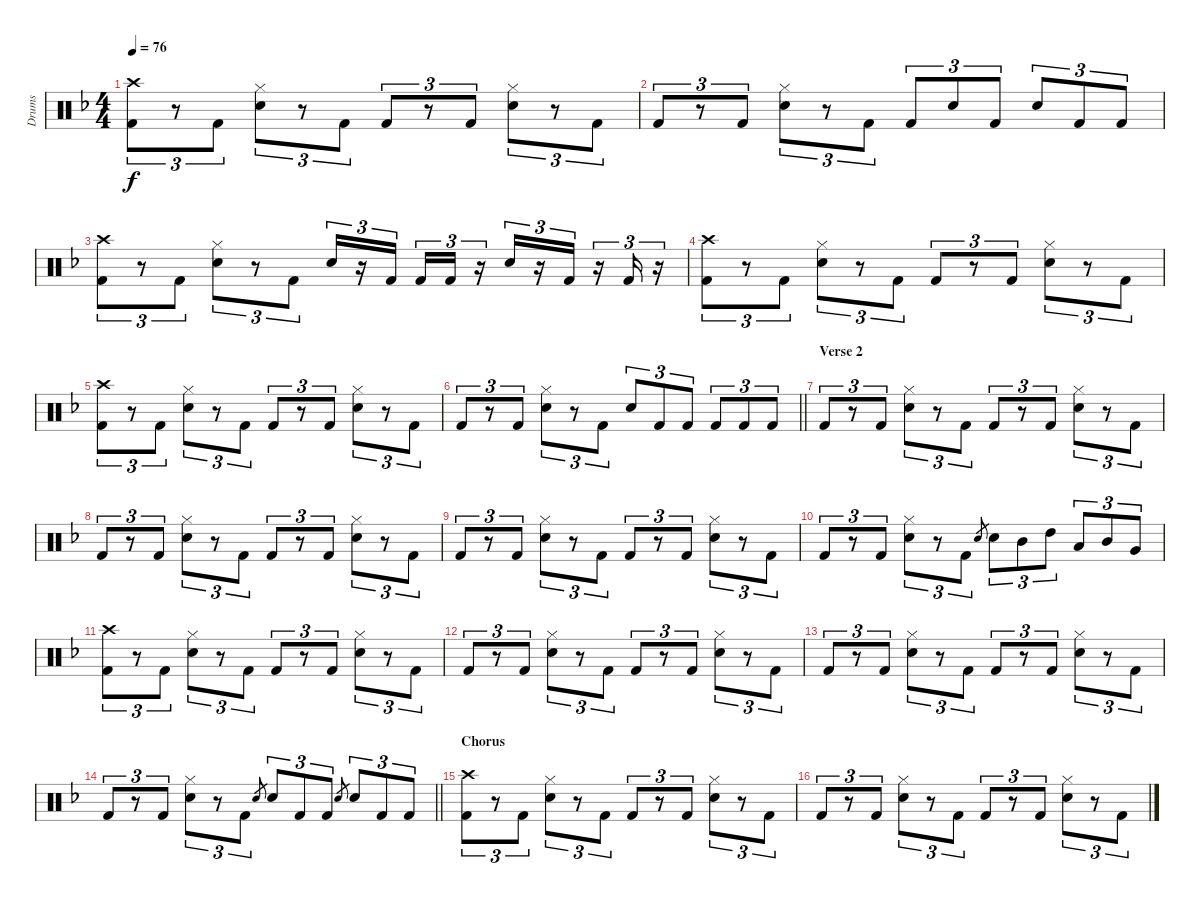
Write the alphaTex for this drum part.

\track ("Drums" "Drums") {instrument percussion}
\staff {score}
\articulation defaults
\ts (4 4)
\tempo 76
\clef neutral
\ks f
("Crash high (hit)" "Kick (hit) 2").8{tu (3 2) dy f} r.8{tu (3 2)} "Kick (hit) 2".8{tu (3 2)} ("Hi-Hat (closed)" "Electric Snare (hit)").8{tu (3 2)} r.8{tu (3 2)} "Kick (hit) 2".8{tu (3 2)} "Kick (hit) 2".8{tu (3 2)} r.8{tu (3 2)} "Kick (hit) 2".8{tu (3 2)} ("Hi-Hat (closed)" "Electric Snare (hit)").8{tu (3 2)} r.8{tu (3 2)} "Kick (hit) 2".8{tu (3 2)} |
"Kick (hit) 2".8{tu (3 2)} r.8{tu (3 2)} "Kick (hit) 2".8{tu (3 2)} ("Hi-Hat (closed)" "Electric Snare (hit)").8{tu (3 2)} r.8{tu (3 2)} "Kick (hit) 2".8{tu (3 2)} "Kick (hit) 2".8{tu (3 2)} "Electric Snare (hit)".8{tu (3 2)} "Kick (hit) 2".8{tu (3 2)} "Electric Snare (hit)".8{tu (3 2)} "Kick (hit) 2".8{tu (3 2)} "Kick (hit) 2".8{tu (3 2)} |
("Crash high (hit)" "Kick (hit) 2").8{tu (3 2)} r.8{tu (3 2)} "Kick (hit) 2".8{tu (3 2)} ("Hi-Hat (closed)" "Electric Snare (hit)").8{tu (3 2)} r.8{tu (3 2)} "Kick (hit) 2".8{tu (3 2)} "Electric Snare (hit)".16{tu (3 2)} r.16{tu (3 2)} "Kick (hit) 2".16{tu (3 2) beam splitsecondary} "Kick (hit) 2".16{tu (3 2)} "Kick (hit) 2".16{tu (3 2)} r.16{tu (3 2)} "Electric Snare (hit)".16{tu (3 2)} r.16{tu (3 2)} "Kick (hit) 2".16{tu (3 2)} r.16{tu (3 2)} "Kick (hit) 2".16{tu (3 2)} r.16{tu (3 2)} |
("Crash high (hit)" "Kick (hit) 2").8{tu (3 2)} r.8{tu (3 2)} "Kick (hit) 2".8{tu (3 2)} ("Hi-Hat (closed)" "Electric Snare (hit)").8{tu (3 2)} r.8{tu (3 2)} "Kick (hit) 2".8{tu (3 2)} "Kick (hit) 2".8{tu (3 2)} r.8{tu (3 2)} "Kick (hit) 2".8{tu (3 2)} ("Hi-Hat (closed)" "Electric Snare (hit)").8{tu (3 2)} r.8{tu (3 2)} "Kick (hit) 2".8{tu (3 2)} |
("Crash high (hit)" "Kick (hit) 2").8{tu (3 2)} r.8{tu (3 2)} "Kick (hit) 2".8{tu (3 2)} ("Hi-Hat (closed)" "Electric Snare (hit)").8{tu (3 2)} r.8{tu (3 2)} "Kick (hit) 2".8{tu (3 2)} "Kick (hit) 2".8{tu (3 2)} r.8{tu (3 2)} "Kick (hit) 2".8{tu (3 2)} ("Hi-Hat (closed)" "Electric Snare (hit)").8{tu (3 2)} r.8{tu (3 2)} "Kick (hit) 2".8{tu (3 2)} |
\barLineRight lightlight "Kick (hit) 2".8{tu (3 2)}
r.8{tu (3 2)} "Kick (hit) 2".8{tu (3 2)} ("Hi-Hat (closed)" "Electric Snare (hit)").8{tu (3 2)} r.8{tu (3 2)} "Kick (hit) 2".8{tu (3 2)} "Electric Snare (hit)".8{tu (3 2)} "Kick (hit) 2".8{tu (3 2)} "Kick (hit) 2".8{tu (3 2)} "Kick (hit) 2".8{tu (3 2)} "Kick (hit) 2".8{tu (3 2)} "Kick (hit) 2".8{tu (3 2)} |
\section ("" "Verse 2")
"Kick (hit) 2".8{tu (3 2)} r.8{tu (3 2)} "Kick (hit) 2".8{tu (3 2)} ("Hi-Hat (closed)" "Electric Snare (hit)").8{tu (3 2)} r.8{tu (3 2)} "Kick (hit) 2".8{tu (3 2)} "Kick (hit) 2".8{tu (3 2)} r.8{tu (3 2)} "Kick (hit) 2".8{tu (3 2)} ("Hi-Hat (closed)" "Electric Snare (hit)").8{tu (3 2)} r.8{tu (3 2)} "Kick (hit) 2".8{tu (3 2)} |
"Kick (hit) 2".8{tu (3 2)} r.8{tu (3 2)} "Kick (hit) 2".8{tu (3 2)} ("Hi-Hat (closed)" "Electric Snare (hit)").8{tu (3 2)} r.8{tu (3 2)} "Kick (hit) 2".8{tu (3 2)} "Kick (hit) 2".8{tu (3 2)} r.8{tu (3 2)} "Kick (hit) 2".8{tu (3 2)} ("Hi-Hat (closed)" "Electric Snare (hit)").8{tu (3 2)} r.8{tu (3 2)} "Kick (hit) 2".8{tu (3 2)} |
"Kick (hit) 2".8{tu (3 2)} r.8{tu (3 2)} "Kick (hit) 2".8{tu (3 2)} ("Hi-Hat (closed)" "Electric Snare (hit)").8{tu (3 2)} r.8{tu (3 2)} "Kick (hit) 2".8{tu (3 2)} "Kick (hit) 2".8{tu (3 2)} r.8{tu (3 2)} "Kick (hit) 2".8{tu (3 2)} ("Hi-Hat (closed)" "Electric Snare (hit)").8{tu (3 2)} r.8{tu (3 2)} "Kick (hit) 2".8{tu (3 2)} |
"Kick (hit) 2".8{tu (3 2)} r.8{tu (3 2)} "Kick (hit) 2".8{tu (3 2)} ("Hi-Hat (closed)" "Electric Snare (hit)").8{tu (3 2)} r.8{tu (3 2)} "Kick (hit) 2".8{tu (3 2)} "Electric Snare (hit)".8{gr} "Electric Snare (hit)".8{tu (3 2)} "Mid Tom (hit)".8{tu (3 2)} "High Tom (hit)".8{tu (3 2)} "Low Tom (hit)".8{tu (3 2)} "Mid Tom (hit)".8{tu (3 2)} "Very Low Tom (hit)".8{tu (3 2)} |
("Crash high (hit)" "Kick (hit) 2").8{tu (3 2)} r.8{tu (3 2)} "Kick (hit) 2".8{tu (3 2)} ("Hi-Hat (closed)" "Electric Snare (hit)").8{tu (3 2)} r.8{tu (3 2)} "Kick (hit) 2".8{tu (3 2)} "Kick (hit) 2".8{tu (3 2)} r.8{tu (3 2)} "Kick (hit) 2".8{tu (3 2)} ("Hi-Hat (closed)" "Electric Snare (hit)").8{tu (3 2)} r.8{tu (3 2)} "Kick (hit) 2".8{tu (3 2)} |
"Kick (hit) 2".8{tu (3 2)} r.8{tu (3 2)} "Kick (hit) 2".8{tu (3 2)} ("Hi-Hat (closed)" "Electric Snare (hit)").8{tu (3 2)} r.8{tu (3 2)} "Kick (hit) 2".8{tu (3 2)} "Kick (hit) 2".8{tu (3 2)} r.8{tu (3 2)} "Kick (hit) 2".8{tu (3 2)} ("Hi-Hat (closed)" "Electric Snare (hit)").8{tu (3 2)} r.8{tu (3 2)} "Kick (hit) 2".8{tu (3 2)} |
"Kick (hit) 2".8{tu (3 2)} r.8{tu (3 2)} "Kick (hit) 2".8{tu (3 2)} ("Hi-Hat (closed)" "Electric Snare (hit)").8{tu (3 2)} r.8{tu (3 2)} "Kick (hit) 2".8{tu (3 2)} "Kick (hit) 2".8{tu (3 2)} r.8{tu (3 2)} "Kick (hit) 2".8{tu (3 2)} ("Hi-Hat (closed)" "Electric Snare (hit)").8{tu (3 2)} r.8{tu (3 2)} "Kick (hit) 2".8{tu (3 2)} |
\barLineRight lightlight "Kick (hit) 2".8{tu (3 2)}
r.8{tu (3 2)} "Kick (hit) 2".8{tu (3 2)} ("Hi-Hat (closed)" "Electric Snare (hit)").8{tu (3 2)} r.8{tu (3 2)} "Kick (hit) 2".8{tu (3 2)} "Electric Snare (hit)".8{gr} "Electric Snare (hit)".8{tu (3 2)} "Kick (hit) 2".8{tu (3 2)} "Kick (hit) 2".8{tu (3 2)} "Electric Snare (hit)".8{gr} "Electric Snare (hit)".8{tu (3 2)} "Kick (hit) 2".8{tu (3 2)} "Kick (hit) 2".8{tu (3 2)} |
\section ("" "Chorus")
("Crash high (hit)" "Kick (hit) 2").8{tu (3 2)} r.8{tu (3 2)} "Kick (hit) 2".8{tu (3 2)} ("Hi-Hat (closed)" "Electric Snare (hit)").8{tu (3 2)} r.8{tu (3 2)} "Kick (hit) 2".8{tu (3 2)} "Kick (hit) 2".8{tu (3 2)} r.8{tu (3 2)} "Kick (hit) 2".8{tu (3 2)} ("Hi-Hat (closed)" "Electric Snare (hit)").8{tu (3 2)} r.8{tu (3 2)} "Kick (hit) 2".8{tu (3 2)} |
"Kick (hit) 2".8{tu (3 2)} r.8{tu (3 2)} "Kick (hit) 2".8{tu (3 2)} ("Hi-Hat (closed)" "Electric Snare (hit)").8{tu (3 2)} r.8{tu (3 2)} "Kick (hit) 2".8{tu (3 2)} "Kick (hit) 2".8{tu (3 2)} r.8{tu (3 2)} "Kick (hit) 2".8{tu (3 2)} ("Hi-Hat (closed)" "Electric Snare (hit)").8{tu (3 2)} r.8{tu (3 2)} "Kick (hit) 2".8{tu (3 2)}
